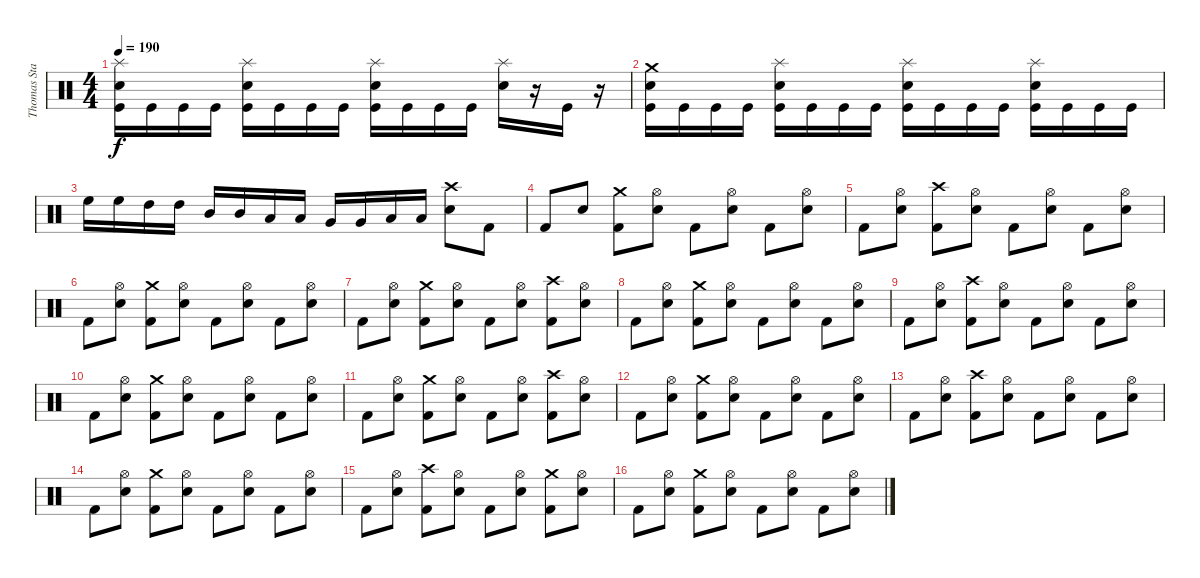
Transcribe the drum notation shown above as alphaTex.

\track ("Thomas Stauch" "Thomas Sta") {instrument percussion}
\staff {score}
\articulation defaults
\ts (4 4)
\tempo 190
\clef neutral
\ks c
("Splash (hit)" "Electric Snare (hit)" "Kick (hit)").16{dy f} "Kick (hit)".16 "Kick (hit)".16 "Kick (hit)".16 ("Splash (hit)" "Electric Snare (hit)" "Kick (hit)").16 "Kick (hit)".16 "Kick (hit)".16 "Kick (hit)".16 ("Splash (hit)" "Electric Snare (hit)" "Kick (hit)").16 "Kick (hit)".16 "Kick (hit)".16 "Kick (hit)".16 ("Splash (hit)" "Electric Snare (hit)").16 r.16 "Kick (hit)".16 r.16 |
("Crash medium (hit)" "Electric Snare (hit)" "Kick (hit)").16 "Kick (hit)".16 "Kick (hit)".16 "Kick (hit)".16 ("Splash (hit)" "Electric Snare (hit)" "Kick (hit)").16 "Kick (hit)".16 "Kick (hit)".16 "Kick (hit)".16 ("Splash (hit)" "Electric Snare (hit)" "Kick (hit)").16 "Kick (hit)".16 "Kick (hit)".16 "Kick (hit)".16 ("Splash (hit)" "Electric Snare (hit)" "Kick (hit)").16 "Kick (hit)".16 "Kick (hit)".16 "Kick (hit)".16 |
"High Floor Tom (hit)".16 "High Floor Tom (hit)".16 "High Tom (hit)".16 "High Tom (hit)".16 "Mid Tom (hit)".16 "Mid Tom (hit)".16 "Low Tom (hit)".16 "Low Tom (hit)".16 "Very Low Tom (hit)".16 "Very Low Tom (hit)".16 "Low Floor Tom (hit)".16 "Low Floor Tom (hit)".16 ("Crash high (hit)" "Electric Snare (hit)").8 "Kick (hit) 2".8 |
"Kick (hit) 2".8 "Electric Snare (hit)".8 ("Crash medium (hit)" "Kick (hit) 2").8 ("Hi-Hat (open)" "Electric Snare (hit)").8 "Kick (hit) 2".8 ("Hi-Hat (open)" "Electric Snare (hit)").8 "Kick (hit) 2".8 ("Hi-Hat (open)" "Electric Snare (hit)").8 |
"Kick (hit) 2".8 ("Hi-Hat (open)" "Electric Snare (hit)").8 ("Crash high (hit)" "Kick (hit) 2").8 ("Hi-Hat (open)" "Electric Snare (hit)").8 "Kick (hit) 2".8 ("Hi-Hat (open)" "Electric Snare (hit)").8 "Kick (hit) 2".8 ("Hi-Hat (open)" "Electric Snare (hit)").8 |
"Kick (hit) 2".8 ("Hi-Hat (open)" "Electric Snare (hit)").8 ("Crash medium (hit)" "Kick (hit) 2").8 ("Hi-Hat (open)" "Electric Snare (hit)").8 "Kick (hit) 2".8 ("Hi-Hat (open)" "Electric Snare (hit)").8 "Kick (hit) 2".8 ("Hi-Hat (open)" "Electric Snare (hit)").8 |
"Kick (hit) 2".8 ("Hi-Hat (open)" "Electric Snare (hit)").8 ("Crash medium (hit)" "Kick (hit) 2").8 ("Hi-Hat (open)" "Electric Snare (hit)").8 "Kick (hit) 2".8 ("Hi-Hat (open)" "Electric Snare (hit)").8 ("Crash high (hit)" "Kick (hit) 2").8 ("Hi-Hat (open)" "Electric Snare (hit)").8 |
"Kick (hit) 2".8 ("Hi-Hat (open)" "Electric Snare (hit)").8 ("Crash medium (hit)" "Kick (hit) 2").8 ("Hi-Hat (open)" "Electric Snare (hit)").8 "Kick (hit) 2".8 ("Hi-Hat (open)" "Electric Snare (hit)").8 "Kick (hit) 2".8 ("Hi-Hat (open)" "Electric Snare (hit)").8 |
"Kick (hit) 2".8 ("Hi-Hat (open)" "Electric Snare (hit)").8 ("Crash high (hit)" "Kick (hit) 2").8 ("Hi-Hat (open)" "Electric Snare (hit)").8 "Kick (hit) 2".8 ("Hi-Hat (open)" "Electric Snare (hit)").8 "Kick (hit) 2".8 ("Hi-Hat (open)" "Electric Snare (hit)").8 |
"Kick (hit) 2".8 ("Hi-Hat (open)" "Electric Snare (hit)").8 ("Crash medium (hit)" "Kick (hit) 2").8 ("Hi-Hat (open)" "Electric Snare (hit)").8 "Kick (hit) 2".8 ("Hi-Hat (open)" "Electric Snare (hit)").8 "Kick (hit) 2".8 ("Hi-Hat (open)" "Electric Snare (hit)").8 |
"Kick (hit) 2".8 ("Hi-Hat (open)" "Electric Snare (hit)").8 ("Crash medium (hit)" "Kick (hit) 2").8 ("Hi-Hat (open)" "Electric Snare (hit)").8 "Kick (hit) 2".8 ("Hi-Hat (open)" "Electric Snare (hit)").8 ("Crash high (hit)" "Kick (hit) 2").8 ("Hi-Hat (open)" "Electric Snare (hit)").8 |
"Kick (hit) 2".8 ("Hi-Hat (open)" "Electric Snare (hit)").8 ("Crash medium (hit)" "Kick (hit) 2").8 ("Hi-Hat (open)" "Electric Snare (hit)").8 "Kick (hit) 2".8 ("Hi-Hat (open)" "Electric Snare (hit)").8 "Kick (hit) 2".8 ("Hi-Hat (open)" "Electric Snare (hit)").8 |
"Kick (hit) 2".8 ("Hi-Hat (open)" "Electric Snare (hit)").8 ("Crash high (hit)" "Kick (hit) 2").8 ("Hi-Hat (open)" "Electric Snare (hit)").8 "Kick (hit) 2".8 ("Hi-Hat (open)" "Electric Snare (hit)").8 "Kick (hit) 2".8 ("Hi-Hat (open)" "Electric Snare (hit)").8 |
"Kick (hit) 2".8 ("Hi-Hat (open)" "Electric Snare (hit)").8 ("Crash medium (hit)" "Kick (hit) 2").8 ("Hi-Hat (open)" "Electric Snare (hit)").8 "Kick (hit) 2".8 ("Hi-Hat (open)" "Electric Snare (hit)").8 "Kick (hit) 2".8 ("Hi-Hat (open)" "Electric Snare (hit)").8 |
"Kick (hit) 2".8 ("Hi-Hat (open)" "Electric Snare (hit)").8 ("Crash high (hit)" "Kick (hit) 2").8 ("Hi-Hat (open)" "Electric Snare (hit)").8 "Kick (hit) 2".8 ("Hi-Hat (open)" "Electric Snare (hit)").8 ("Crash medium (hit)" "Kick (hit) 2").8 ("Hi-Hat (open)" "Electric Snare (hit)").8 |
"Kick (hit) 2".8 ("Hi-Hat (open)" "Electric Snare (hit)").8 ("Crash medium (hit)" "Kick (hit) 2").8 ("Hi-Hat (open)" "Electric Snare (hit)").8 "Kick (hit) 2".8 ("Hi-Hat (open)" "Electric Snare (hit)").8 "Kick (hit) 2".8 ("Hi-Hat (open)" "Electric Snare (hit)").8
